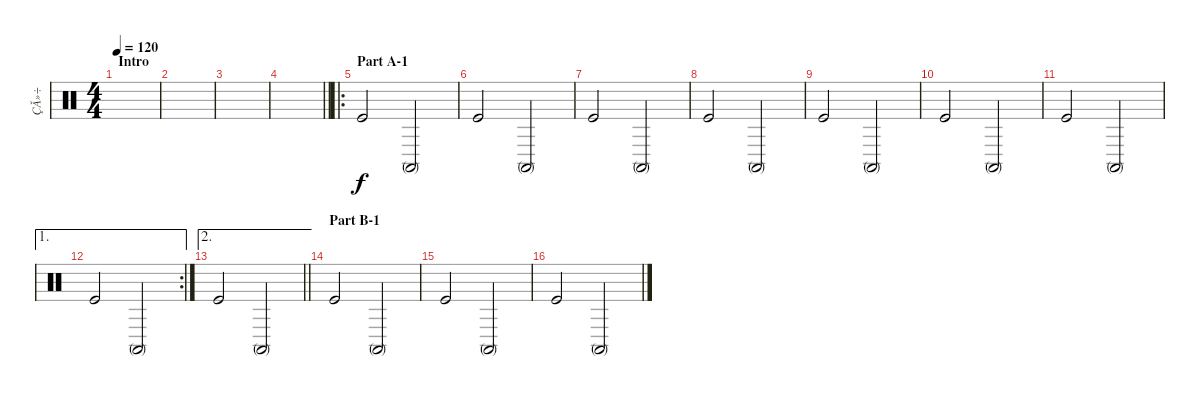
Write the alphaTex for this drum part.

\track ("ÇĂ»÷" "ÇĂ»÷") {instrument percussion}
\staff {score}
\articulation defaults
\ts (4 4)
\section ("" "Intro")
\tempo 120
\clef neutral
\ks c
|
|
|
\barLineRight lightlight
|
\ro
\section ("" "Part A-1")
"Kick (hit)".2 "Conga high (mute)".2 |
"Kick (hit)".2 "Conga high (mute)".2 |
"Kick (hit)".2 "Conga high (mute)".2 |
"Kick (hit)".2 "Conga high (mute)".2 |
"Kick (hit)".2 "Conga high (mute)".2 |
"Kick (hit)".2 "Conga high (mute)".2 |
"Kick (hit)".2 "Conga high (mute)".2 |
\ae 1
\rc 2 "Kick (hit)".2 "Conga high (mute)".2
|
\ae 2
\barLineRight lightlight "Kick (hit)".2 "Conga high (mute)".2
|
\section ("" "Part B-1")
"Kick (hit)".2 "Conga high (mute)".2 |
"Kick (hit)".2 "Conga high (mute)".2 |
"Kick (hit)".2 "Conga high (mute)".2
